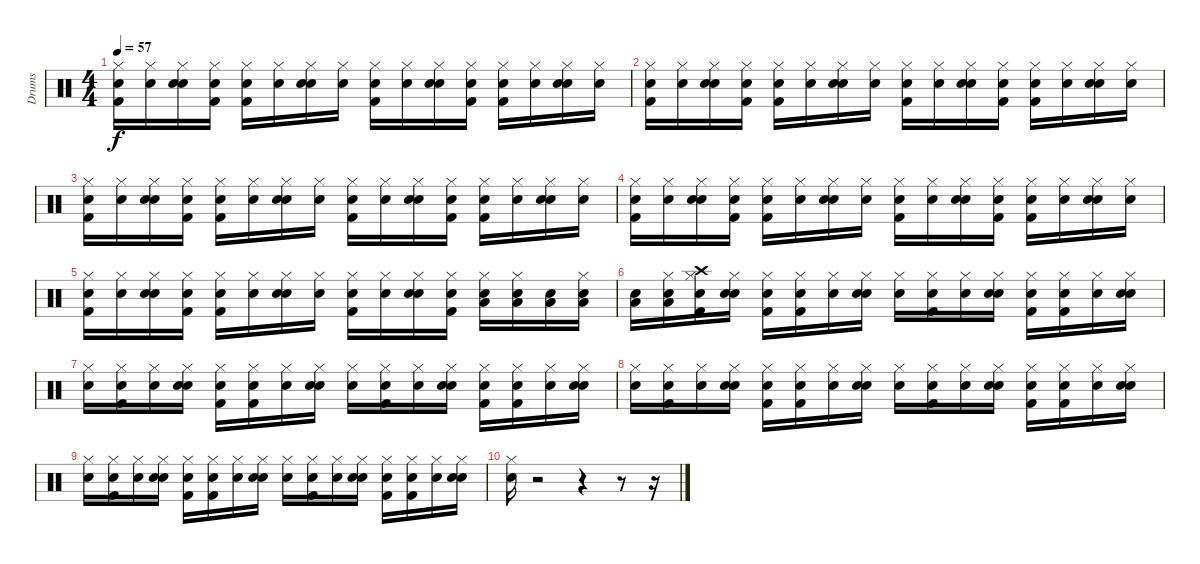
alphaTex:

\track ("Drums" "Drums") {instrument percussion}
\staff {score}
\articulation defaults
\ts (4 4)
\tempo 57
\clef neutral
\ks c
("Snare (hit)" "Kick (hit) 2" "Hi-Hat (closed)").16{dy f} ("Snare (hit)" "Hi-Hat (closed)").16 ("Snare (hit)" "Snare (hit) 2" "Hi-Hat (closed)").16 ("Snare (hit)" "Kick (hit) 2" "Hi-Hat (closed)").16 ("Snare (hit)" "Hi-Hat (closed)" "Kick (hit) 2").16 ("Snare (hit)" "Hi-Hat (closed)").16 ("Snare (hit)" "Snare (hit) 2" "Hi-Hat (closed)").16 ("Snare (hit)" "Hi-Hat (closed)").16 ("Snare (hit)" "Kick (hit) 2" "Hi-Hat (closed)").16 ("Snare (hit)" "Hi-Hat (closed)").16 ("Snare (hit)" "Snare (hit) 2" "Hi-Hat (closed)").16 ("Snare (hit)" "Kick (hit) 2" "Hi-Hat (closed)").16 ("Snare (hit)" "Kick (hit) 2" "Hi-Hat (closed)").16 ("Snare (hit)" "Hi-Hat (closed)").16 ("Snare (hit)" "Snare (hit) 2" "Hi-Hat (closed)").16 ("Snare (hit)" "Hi-Hat (closed)").16 |
("Snare (hit)" "Kick (hit) 2" "Hi-Hat (closed)").16 ("Snare (hit)" "Hi-Hat (closed)").16 ("Snare (hit)" "Snare (hit) 2" "Hi-Hat (closed)").16 ("Snare (hit)" "Kick (hit) 2" "Hi-Hat (closed)").16 ("Snare (hit)" "Hi-Hat (closed)" "Kick (hit) 2").16 ("Snare (hit)" "Hi-Hat (closed)").16 ("Snare (hit)" "Snare (hit) 2" "Hi-Hat (closed)").16 ("Snare (hit)" "Hi-Hat (closed)").16 ("Snare (hit)" "Kick (hit) 2" "Hi-Hat (closed)").16 ("Snare (hit)" "Hi-Hat (closed)").16 ("Snare (hit)" "Snare (hit) 2" "Hi-Hat (closed)").16 ("Snare (hit)" "Kick (hit) 2" "Hi-Hat (closed)").16 ("Snare (hit)" "Kick (hit) 2" "Hi-Hat (closed)").16 ("Snare (hit)" "Hi-Hat (closed)").16 ("Snare (hit)" "Snare (hit) 2" "Hi-Hat (closed)").16 ("Snare (hit)" "Hi-Hat (closed)").16 |
("Snare (hit)" "Kick (hit) 2" "Hi-Hat (closed)").16 ("Snare (hit)" "Hi-Hat (closed)").16 ("Snare (hit)" "Snare (hit) 2" "Hi-Hat (closed)").16 ("Snare (hit)" "Kick (hit) 2" "Hi-Hat (closed)").16 ("Snare (hit)" "Hi-Hat (closed)" "Kick (hit) 2").16 ("Snare (hit)" "Hi-Hat (closed)").16 ("Snare (hit)" "Snare (hit) 2" "Hi-Hat (closed)").16 ("Snare (hit)" "Hi-Hat (closed)").16 ("Snare (hit)" "Kick (hit) 2" "Hi-Hat (closed)").16 ("Snare (hit)" "Hi-Hat (closed)").16 ("Snare (hit)" "Snare (hit) 2" "Hi-Hat (closed)").16 ("Snare (hit)" "Kick (hit) 2" "Hi-Hat (closed)").16 ("Snare (hit)" "Kick (hit) 2" "Hi-Hat (closed)").16 ("Snare (hit)" "Hi-Hat (closed)").16 ("Snare (hit)" "Snare (hit) 2" "Hi-Hat (closed)").16 ("Snare (hit)" "Hi-Hat (closed)").16 |
("Snare (hit)" "Kick (hit) 2" "Hi-Hat (closed)").16 ("Snare (hit)" "Hi-Hat (closed)").16 ("Snare (hit)" "Snare (hit) 2" "Hi-Hat (closed)").16 ("Snare (hit)" "Kick (hit) 2" "Hi-Hat (closed)").16 ("Snare (hit)" "Hi-Hat (closed)" "Kick (hit) 2").16 ("Snare (hit)" "Hi-Hat (closed)").16 ("Snare (hit)" "Snare (hit) 2" "Hi-Hat (closed)").16 ("Snare (hit)" "Hi-Hat (closed)").16 ("Snare (hit)" "Kick (hit) 2" "Hi-Hat (closed)").16 ("Snare (hit)" "Hi-Hat (closed)").16 ("Snare (hit)" "Snare (hit) 2" "Hi-Hat (closed)").16 ("Snare (hit)" "Kick (hit) 2" "Hi-Hat (closed)").16 ("Snare (hit)" "Kick (hit) 2" "Hi-Hat (closed)").16 ("Snare (hit)" "Hi-Hat (closed)").16 ("Snare (hit)" "Snare (hit) 2" "Hi-Hat (closed)").16 ("Snare (hit)" "Hi-Hat (closed)").16 |
("Snare (hit)" "Kick (hit) 2" "Hi-Hat (closed)").16 ("Snare (hit)" "Hi-Hat (closed)").16 ("Snare (hit)" "Snare (hit) 2" "Hi-Hat (closed)").16 ("Snare (hit)" "Kick (hit) 2" "Hi-Hat (closed)").16 ("Snare (hit)" "Hi-Hat (closed)" "Kick (hit) 2").16 ("Snare (hit)" "Hi-Hat (closed)").16 ("Snare (hit)" "Snare (hit) 2" "Hi-Hat (closed)").16 ("Snare (hit)" "Hi-Hat (closed)").16 ("Snare (hit)" "Kick (hit) 2" "Hi-Hat (closed)").16 ("Snare (hit)" "Hi-Hat (closed)").16 ("Snare (hit)" "Snare (hit) 2" "Hi-Hat (closed)").16 ("Snare (hit)" "Kick (hit) 2" "Hi-Hat (closed)").16 ("Snare (hit)" "Hi-Hat (closed)" "Low Tom (hit)").16 ("Snare (hit)" "Low Tom (hit)" "Hi-Hat (closed)").16 ("Snare (hit)" "Low Tom (hit)").16 ("Snare (hit)" "Low Tom (hit)" "Hi-Hat (closed)").16 |
("Snare (hit)" "Low Tom (hit)").16 ("Snare (hit)" "Low Tom (hit)" "Hi-Hat (closed)").16 ("Snare (hit)" "Kick (hit) 2" "Crash high (hit)" "Hi-Hat (closed)").16 ("Snare (hit)" "Snare (hit) 2" "Hi-Hat (closed)").16 ("Snare (hit)" "Kick (hit) 2" "Hi-Hat (closed)").16 ("Snare (hit)" "Hi-Hat (closed)" "Kick (hit) 2").16 ("Snare (hit)" "Hi-Hat (closed)").16 ("Snare (hit)" "Snare (hit) 2" "Hi-Hat (closed)").16 ("Snare (hit)" "Hi-Hat (closed)").16 ("Snare (hit)" "Kick (hit) 2" "Hi-Hat (closed)").16 ("Snare (hit)" "Hi-Hat (closed)").16 ("Snare (hit)" "Snare (hit) 2" "Hi-Hat (closed)").16 ("Snare (hit)" "Kick (hit) 2" "Hi-Hat (closed)").16 ("Snare (hit)" "Kick (hit) 2" "Hi-Hat (closed)").16 ("Snare (hit)" "Hi-Hat (closed)").16 ("Snare (hit)" "Snare (hit) 2" "Hi-Hat (closed)").16 |
("Snare (hit)" "Hi-Hat (closed)").16 ("Snare (hit)" "Kick (hit) 2" "Hi-Hat (closed)").16 ("Snare (hit)" "Hi-Hat (closed)").16 ("Snare (hit)" "Snare (hit) 2" "Hi-Hat (closed)").16 ("Snare (hit)" "Kick (hit) 2" "Hi-Hat (closed)").16 ("Snare (hit)" "Hi-Hat (closed)" "Kick (hit) 2").16 ("Snare (hit)" "Hi-Hat (closed)").16 ("Snare (hit)" "Snare (hit) 2" "Hi-Hat (closed)").16 ("Snare (hit)" "Hi-Hat (closed)").16 ("Snare (hit)" "Kick (hit) 2" "Hi-Hat (closed)").16 ("Snare (hit)" "Hi-Hat (closed)").16 ("Snare (hit)" "Snare (hit) 2" "Hi-Hat (closed)").16 ("Snare (hit)" "Kick (hit) 2" "Hi-Hat (closed)").16 ("Snare (hit)" "Kick (hit) 2" "Hi-Hat (closed)").16 ("Snare (hit)" "Hi-Hat (closed)").16 ("Snare (hit)" "Snare (hit) 2" "Hi-Hat (closed)").16 |
("Snare (hit)" "Hi-Hat (closed)").16 ("Snare (hit)" "Kick (hit) 2" "Hi-Hat (closed)").16 ("Snare (hit)" "Hi-Hat (closed)").16 ("Snare (hit)" "Snare (hit) 2" "Hi-Hat (closed)").16 ("Snare (hit)" "Kick (hit) 2" "Hi-Hat (closed)").16 ("Snare (hit)" "Hi-Hat (closed)" "Kick (hit) 2").16 ("Snare (hit)" "Hi-Hat (closed)").16 ("Snare (hit)" "Snare (hit) 2" "Hi-Hat (closed)").16 ("Snare (hit)" "Hi-Hat (closed)").16 ("Snare (hit)" "Kick (hit) 2" "Hi-Hat (closed)").16 ("Snare (hit)" "Hi-Hat (closed)").16 ("Snare (hit)" "Snare (hit) 2" "Hi-Hat (closed)").16 ("Snare (hit)" "Kick (hit) 2" "Hi-Hat (closed)").16 ("Snare (hit)" "Kick (hit) 2" "Hi-Hat (closed)").16 ("Snare (hit)" "Hi-Hat (closed)").16 ("Snare (hit)" "Snare (hit) 2" "Hi-Hat (closed)").16 |
("Snare (hit)" "Hi-Hat (closed)").16 ("Snare (hit)" "Kick (hit) 2" "Hi-Hat (closed)").16 ("Snare (hit)" "Hi-Hat (closed)").16 ("Snare (hit)" "Snare (hit) 2" "Hi-Hat (closed)").16 ("Snare (hit)" "Kick (hit) 2" "Hi-Hat (closed)").16 ("Snare (hit)" "Hi-Hat (closed)" "Kick (hit) 2").16 ("Snare (hit)" "Hi-Hat (closed)").16 ("Snare (hit)" "Snare (hit) 2" "Hi-Hat (closed)").16 ("Snare (hit)" "Hi-Hat (closed)").16 ("Snare (hit)" "Kick (hit) 2" "Hi-Hat (closed)").16 ("Snare (hit)" "Hi-Hat (closed)").16 ("Snare (hit)" "Snare (hit) 2" "Hi-Hat (closed)").16 ("Snare (hit)" "Kick (hit) 2" "Hi-Hat (closed)").16 ("Snare (hit)" "Kick (hit) 2" "Hi-Hat (closed)").16 ("Snare (hit)" "Hi-Hat (closed)").16 ("Snare (hit)" "Snare (hit) 2" "Hi-Hat (closed)").16 |
("Snare (hit)" "Hi-Hat (closed)").16 r.2 r.4 r.8 r.16
